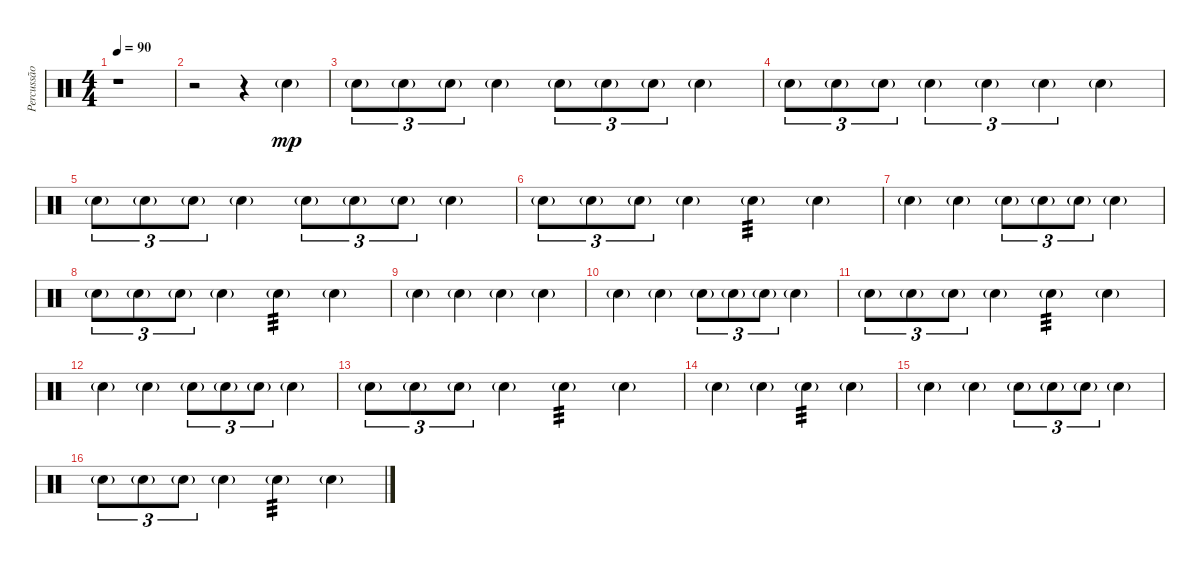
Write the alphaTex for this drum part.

\track ("Percussão" "Percussão") {instrument percussion}
\staff {score}
\articulation defaults
\ts (4 4)
\tempo 90
\clef neutral
\ks c
r.1{dy mp volume 9} |
r.2 r.4 "Snare (hit) 2"{g}.4 |
"Snare (hit) 2"{g}.8{tu (3 2)} "Snare (hit) 2"{g}.8{tu (3 2)} "Snare (hit) 2"{g}.8{tu (3 2)} "Snare (hit) 2"{g}.4 "Snare (hit) 2"{g}.8{tu (3 2)} "Snare (hit) 2"{g}.8{tu (3 2)} "Snare (hit) 2"{g}.8{tu (3 2)} "Snare (hit) 2"{g}.4 |
"Snare (hit) 2"{g}.8{tu (3 2)} "Snare (hit) 2"{g}.8{tu (3 2)} "Snare (hit) 2"{g}.8{tu (3 2)} "Snare (hit) 2"{g}.4{tu (3 2)} "Snare (hit) 2"{g}.4{tu (3 2)} "Snare (hit) 2"{g}.4{tu (3 2)} "Snare (hit) 2"{g}.4 |
"Snare (hit) 2"{g}.8{tu (3 2)} "Snare (hit) 2"{g}.8{tu (3 2)} "Snare (hit) 2"{g}.8{tu (3 2)} "Snare (hit) 2"{g}.4 "Snare (hit) 2"{g}.8{tu (3 2)} "Snare (hit) 2"{g}.8{tu (3 2)} "Snare (hit) 2"{g}.8{tu (3 2)} "Snare (hit) 2"{g}.4 |
"Snare (hit) 2"{g}.8{tu (3 2)} "Snare (hit) 2"{g}.8{tu (3 2)} "Snare (hit) 2"{g}.8{tu (3 2)} "Snare (hit) 2"{g}.4 "Snare (hit) 2"{g}.4{tp 3} "Snare (hit) 2"{g}.4 |
"Snare (hit) 2"{g}.4 "Snare (hit) 2"{g}.4 "Snare (hit) 2"{g}.8{tu (3 2)} "Snare (hit) 2"{g}.8{tu (3 2)} "Snare (hit) 2"{g}.8{tu (3 2)} "Snare (hit) 2"{g}.4 |
"Snare (hit) 2"{g}.8{tu (3 2)} "Snare (hit) 2"{g}.8{tu (3 2)} "Snare (hit) 2"{g}.8{tu (3 2)} "Snare (hit) 2"{g}.4 "Snare (hit) 2"{g}.4{tp 3} "Snare (hit) 2"{g}.4 |
"Snare (hit) 2"{g}.4 "Snare (hit) 2"{g}.4 "Snare (hit) 2"{g}.4 "Snare (hit) 2"{g}.4 |
"Snare (hit) 2"{g}.4 "Snare (hit) 2"{g}.4 "Snare (hit) 2"{g}.8{tu (3 2)} "Snare (hit) 2"{g}.8{tu (3 2)} "Snare (hit) 2"{g}.8{tu (3 2)} "Snare (hit) 2"{g}.4 |
"Snare (hit) 2"{g}.8{tu (3 2)} "Snare (hit) 2"{g}.8{tu (3 2)} "Snare (hit) 2"{g}.8{tu (3 2)} "Snare (hit) 2"{g}.4 "Snare (hit) 2"{g}.4{tp 3} "Snare (hit) 2"{g}.4 |
"Snare (hit) 2"{g}.4 "Snare (hit) 2"{g}.4 "Snare (hit) 2"{g}.8{tu (3 2)} "Snare (hit) 2"{g}.8{tu (3 2)} "Snare (hit) 2"{g}.8{tu (3 2)} "Snare (hit) 2"{g}.4 |
"Snare (hit) 2"{g}.8{tu (3 2)} "Snare (hit) 2"{g}.8{tu (3 2)} "Snare (hit) 2"{g}.8{tu (3 2)} "Snare (hit) 2"{g}.4 "Snare (hit) 2"{g}.4{tp 3} "Snare (hit) 2"{g}.4 |
"Snare (hit) 2"{g}.4 "Snare (hit) 2"{g}.4 "Snare (hit) 2"{g}.4{tp 3} "Snare (hit) 2"{g}.4 |
"Snare (hit) 2"{g}.4 "Snare (hit) 2"{g}.4 "Snare (hit) 2"{g}.8{tu (3 2)} "Snare (hit) 2"{g}.8{tu (3 2)} "Snare (hit) 2"{g}.8{tu (3 2)} "Snare (hit) 2"{g}.4 |
"Snare (hit) 2"{g}.8{tu (3 2)} "Snare (hit) 2"{g}.8{tu (3 2)} "Snare (hit) 2"{g}.8{tu (3 2)} "Snare (hit) 2"{g}.4 "Snare (hit) 2"{g}.4{tp 3} "Snare (hit) 2"{g}.4
